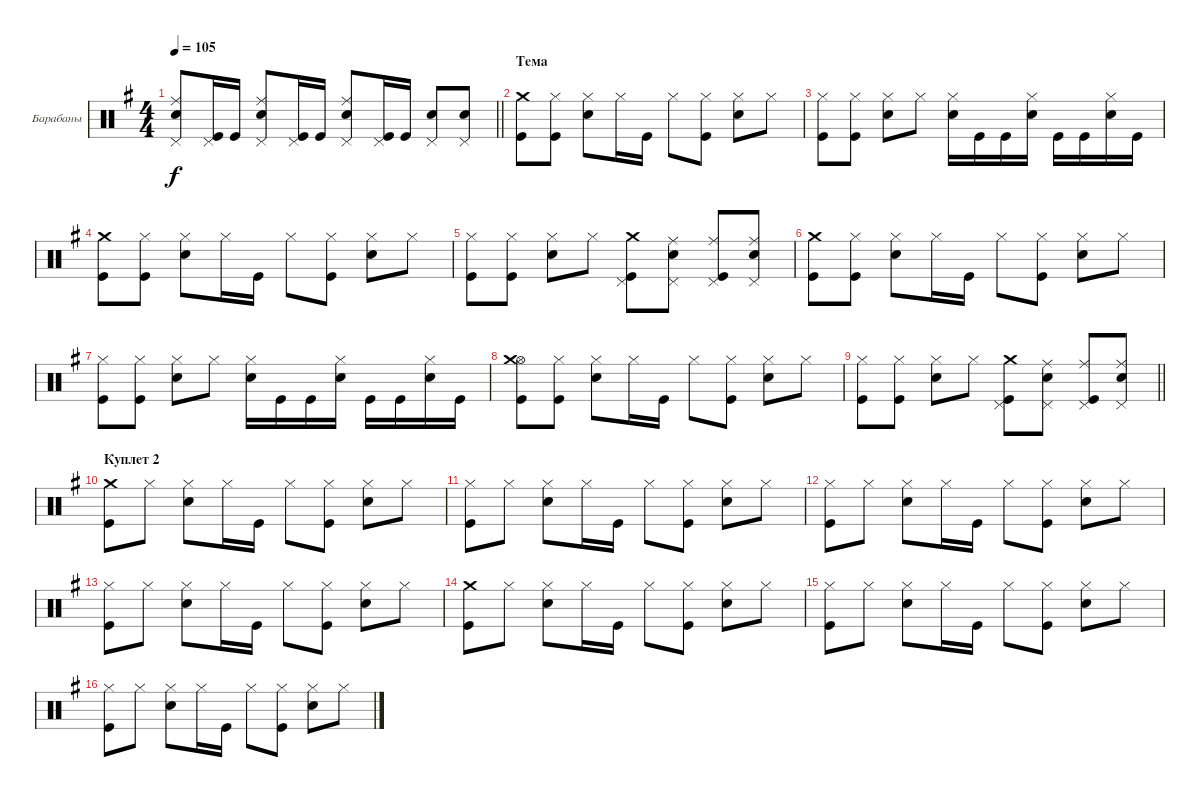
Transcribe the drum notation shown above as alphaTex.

\bracketExtendMode groupsimilarinstruments
\firstSystemTrackNameMode fullname
\otherSystemsTrackNameMode fullname
\firstSystemTrackNameOrientation horizontal
\otherSystemsTrackNameOrientation horizontal
\chordDiagramsInScore
\track ("Барабаны" "Drums") {instrument percussion}
\staff {score}
\articulation defaults
\ts (4 4)
\tempo 105
\clef neutral
\barLineRight lightlight
\ks eminor
("Snare (hit) 2" "Ride (middle)" "Pedal Hi-Hat (hit)").8{dy f} ("Kick (hit)" "Pedal Hi-Hat (hit)").16 "Kick (hit)".16 ("Snare (hit) 2" "Ride (middle)" "Pedal Hi-Hat (hit)").8 ("Kick (hit)" "Pedal Hi-Hat (hit)").16 "Kick (hit)".16 ("Snare (hit) 2" "Ride (middle)" "Pedal Hi-Hat (hit)").8 ("Kick (hit)" "Pedal Hi-Hat (hit)").16 "Kick (hit)".16 ("Snare (hit) 2" "Pedal Hi-Hat (hit)").8 ("Pedal Hi-Hat (hit)" "Snare (hit) 2").8 |
\section ("" "Тема")
("Kick (hit)" "Crash medium (hit)").8 ("Kick (hit)" "Hi-Hat (closed)").8 ("Hi-Hat (closed)" "Snare (hit) 2").8 "Hi-Hat (closed)".16 "Kick (hit)".16 "Hi-Hat (closed)".8 ("Hi-Hat (closed)" "Kick (hit)").8 ("Hi-Hat (closed)" "Snare (hit) 2").8 "Hi-Hat (closed)".8 |
("Kick (hit)" "Hi-Hat (closed)").8 ("Kick (hit)" "Hi-Hat (closed)").8 ("Hi-Hat (closed)" "Snare (hit) 2").8 "Hi-Hat (closed)".8 ("Snare (hit) 2" "Hi-Hat (closed)").16 "Kick (hit)".16 "Kick (hit)".16 ("Snare (hit) 2" "Hi-Hat (closed)").16 "Kick (hit)".16 "Kick (hit)".16 ("Snare (hit) 2" "Hi-Hat (closed)").16 "Kick (hit)".16 |
("Kick (hit)" "Crash medium (hit)").8 ("Kick (hit)" "Hi-Hat (closed)").8 ("Hi-Hat (closed)" "Snare (hit) 2").8 "Hi-Hat (closed)".16 "Kick (hit)".16 "Hi-Hat (closed)".8 ("Hi-Hat (closed)" "Kick (hit)").8 ("Hi-Hat (closed)" "Snare (hit) 2").8 "Hi-Hat (closed)".8 |
("Kick (hit)" "Hi-Hat (closed)").8 ("Kick (hit)" "Hi-Hat (closed)").8 ("Hi-Hat (closed)" "Snare (hit) 2").8 "Hi-Hat (closed)".8 ("Kick (hit)" "Crash medium (hit)" "Pedal Hi-Hat (hit)").8 ("Snare (hit) 2" "Ride (middle)" "Pedal Hi-Hat (hit)").8 ("Kick (hit)" "Ride (middle)" "Pedal Hi-Hat (hit)").8 ("Snare (hit) 2" "Ride (middle)" "Pedal Hi-Hat (hit)").8 |
("Kick (hit)" "Crash medium (hit)").8 ("Kick (hit)" "Hi-Hat (closed)").8 ("Hi-Hat (closed)" "Snare (hit) 2").8 "Hi-Hat (closed)".16 "Kick (hit)".16 "Hi-Hat (closed)".8 ("Hi-Hat (closed)" "Kick (hit)").8 ("Hi-Hat (closed)" "Snare (hit) 2").8 "Hi-Hat (closed)".8 |
("Kick (hit)" "Hi-Hat (closed)").8 ("Kick (hit)" "Hi-Hat (closed)").8 ("Hi-Hat (closed)" "Snare (hit) 2").8 "Hi-Hat (closed)".8 ("Snare (hit) 2" "Hi-Hat (closed)").16 "Kick (hit)".16 "Kick (hit)".16 ("Snare (hit) 2" "Hi-Hat (closed)").16 "Kick (hit)".16 "Kick (hit)".16 ("Snare (hit) 2" "Hi-Hat (closed)").16 "Kick (hit)".16 |
("Kick (hit)" "Hi-Hat (open)" "Crash medium (hit)").8 ("Kick (hit)" "Hi-Hat (closed)").8 ("Hi-Hat (closed)" "Snare (hit) 2").8 "Hi-Hat (closed)".16 "Kick (hit)".16 "Hi-Hat (closed)".8 ("Hi-Hat (closed)" "Kick (hit)").8 ("Hi-Hat (closed)" "Snare (hit) 2").8 "Hi-Hat (closed)".8 |
\barLineRight lightlight
("Kick (hit)" "Hi-Hat (closed)").8 ("Kick (hit)" "Hi-Hat (closed)").8 ("Hi-Hat (closed)" "Snare (hit) 2").8 "Hi-Hat (closed)".8 ("Kick (hit)" "Crash medium (hit)" "Pedal Hi-Hat (hit)").8 ("Snare (hit) 2" "Ride (middle)" "Pedal Hi-Hat (hit)").8 ("Kick (hit)" "Ride (middle)" "Pedal Hi-Hat (hit)").8 ("Snare (hit) 2" "Ride (middle)" "Pedal Hi-Hat (hit)").8 |
\section ("" "Куплет 2")
("Kick (hit)" "Crash medium (hit)").8 "Hi-Hat (closed)".8 ("Hi-Hat (closed)" "Snare (hit) 2").8 "Hi-Hat (closed)".16 "Kick (hit)".16 "Hi-Hat (closed)".8 ("Hi-Hat (closed)" "Kick (hit)").8 ("Hi-Hat (closed)" "Snare (hit) 2").8 "Hi-Hat (closed)".8 |
("Kick (hit)" "Hi-Hat (closed)").8 "Hi-Hat (closed)".8 ("Hi-Hat (closed)" "Snare (hit) 2").8 "Hi-Hat (closed)".16 "Kick (hit)".16 "Hi-Hat (closed)".8 ("Hi-Hat (closed)" "Kick (hit)").8 ("Hi-Hat (closed)" "Snare (hit) 2").8 "Hi-Hat (closed)".8 |
("Kick (hit)" "Hi-Hat (closed)").8 "Hi-Hat (closed)".8 ("Hi-Hat (closed)" "Snare (hit) 2").8 "Hi-Hat (closed)".16 "Kick (hit)".16 "Hi-Hat (closed)".8 ("Hi-Hat (closed)" "Kick (hit)").8 ("Hi-Hat (closed)" "Snare (hit) 2").8 "Hi-Hat (closed)".8 |
("Kick (hit)" "Hi-Hat (closed)").8 "Hi-Hat (closed)".8 ("Hi-Hat (closed)" "Snare (hit) 2").8 "Hi-Hat (closed)".16 "Kick (hit)".16 "Hi-Hat (closed)".8 ("Hi-Hat (closed)" "Kick (hit)").8 ("Hi-Hat (closed)" "Snare (hit) 2").8 "Hi-Hat (closed)".8 |
("Kick (hit)" "Crash medium (hit)").8 "Hi-Hat (closed)".8 ("Hi-Hat (closed)" "Snare (hit) 2").8 "Hi-Hat (closed)".16 "Kick (hit)".16 "Hi-Hat (closed)".8 ("Hi-Hat (closed)" "Kick (hit)").8 ("Hi-Hat (closed)" "Snare (hit) 2").8 "Hi-Hat (closed)".8 |
("Kick (hit)" "Hi-Hat (closed)").8 "Hi-Hat (closed)".8 ("Hi-Hat (closed)" "Snare (hit) 2").8 "Hi-Hat (closed)".16 "Kick (hit)".16 "Hi-Hat (closed)".8 ("Hi-Hat (closed)" "Kick (hit)").8 ("Hi-Hat (closed)" "Snare (hit) 2").8 "Hi-Hat (closed)".8 |
("Kick (hit)" "Hi-Hat (closed)").8 "Hi-Hat (closed)".8 ("Hi-Hat (closed)" "Snare (hit) 2").8 "Hi-Hat (closed)".16 "Kick (hit)".16 "Hi-Hat (closed)".8 ("Hi-Hat (closed)" "Kick (hit)").8 ("Hi-Hat (closed)" "Snare (hit) 2").8 "Hi-Hat (closed)".8
